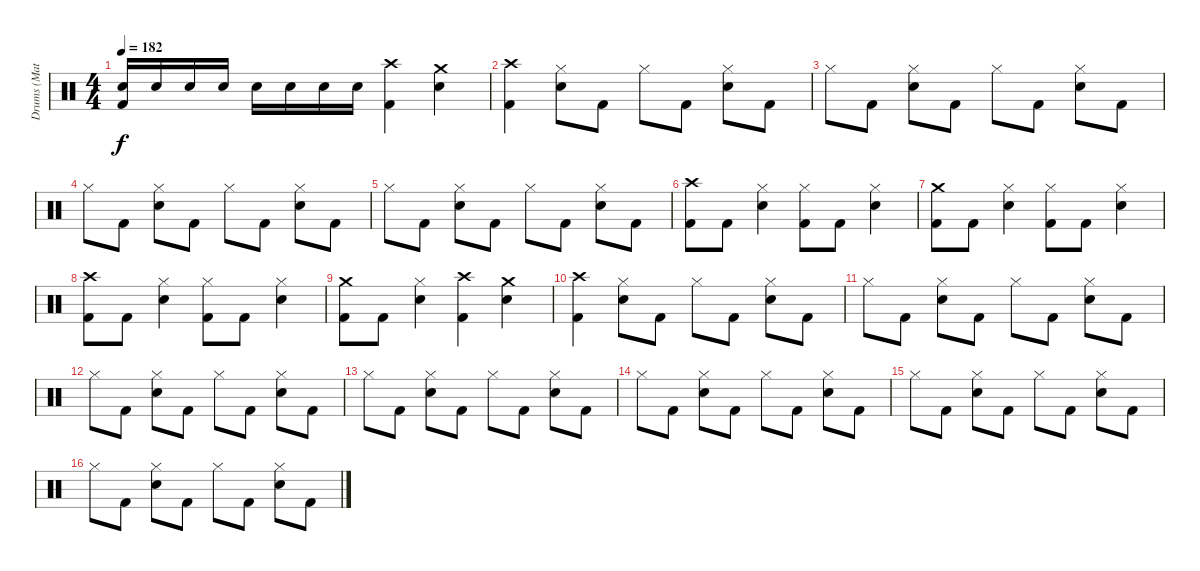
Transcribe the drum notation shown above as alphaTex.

\track ("Drums (Matt)" "Drums (Mat") {instrument percussion}
\staff {score}
\articulation defaults
\ts (4 4)
\tempo 182
\clef neutral
\ks c
("Snare (hit) 2" "Kick (hit) 2").16{dy f} "Snare (hit) 2".16 "Snare (hit) 2".16 "Snare (hit) 2".16 "Snare (hit) 2".16 "Snare (hit) 2".16 "Snare (hit) 2".16 "Snare (hit) 2".16 ("Crash high (hit)" "Kick (hit) 2").4 ("Crash medium (hit)" "Snare (hit) 2").4 |
("Crash high (hit)" "Kick (hit) 2").4 ("Hi-Hat (closed)" "Snare (hit) 2").8 "Kick (hit) 2".8 "Hi-Hat (closed)".8 "Kick (hit) 2".8 ("Hi-Hat (closed)" "Snare (hit) 2").8 "Kick (hit) 2".8 |
"Hi-Hat (closed)".8 "Kick (hit) 2".8 ("Hi-Hat (closed)" "Snare (hit) 2").8 "Kick (hit) 2".8 "Hi-Hat (closed)".8 "Kick (hit) 2".8 ("Hi-Hat (closed)" "Snare (hit) 2").8 "Kick (hit) 2".8 |
"Hi-Hat (closed)".8 "Kick (hit) 2".8 ("Hi-Hat (closed)" "Snare (hit) 2").8 "Kick (hit) 2".8 "Hi-Hat (closed)".8 "Kick (hit) 2".8 ("Hi-Hat (closed)" "Snare (hit) 2").8 "Kick (hit) 2".8 |
"Hi-Hat (closed)".8 "Kick (hit) 2".8 ("Hi-Hat (closed)" "Snare (hit) 2").8 "Kick (hit) 2".8 "Hi-Hat (closed)".8 "Kick (hit) 2".8 ("Hi-Hat (closed)" "Snare (hit) 2").8 "Kick (hit) 2".8 |
("Crash high (hit)" "Kick (hit) 2").8 "Kick (hit) 2".8 ("Hi-Hat (closed)" "Snare (hit) 2").4 ("Hi-Hat (closed)" "Kick (hit) 2").8 "Kick (hit) 2".8 ("Hi-Hat (closed)" "Snare (hit) 2").4 |
("Crash medium (hit)" "Kick (hit) 2").8 "Kick (hit) 2".8 ("Hi-Hat (closed)" "Snare (hit) 2").4 ("Hi-Hat (closed)" "Kick (hit) 2").8 "Kick (hit) 2".8 ("Hi-Hat (closed)" "Snare (hit) 2").4 |
("Crash high (hit)" "Kick (hit) 2").8 "Kick (hit) 2".8 ("Hi-Hat (closed)" "Snare (hit) 2").4 ("Hi-Hat (closed)" "Kick (hit) 2").8 "Kick (hit) 2".8 ("Hi-Hat (closed)" "Snare (hit) 2").4 |
("Crash medium (hit)" "Kick (hit) 2").8 "Kick (hit) 2".8 ("Hi-Hat (closed)" "Snare (hit) 2").4 ("Crash high (hit)" "Kick (hit) 2").4 ("Crash medium (hit)" "Snare (hit) 2").4 |
("Crash high (hit)" "Kick (hit) 2").4 ("Hi-Hat (closed)" "Snare (hit) 2").8 "Kick (hit) 2".8 "Hi-Hat (closed)".8 "Kick (hit) 2".8 ("Hi-Hat (closed)" "Snare (hit) 2").8 "Kick (hit) 2".8 |
"Hi-Hat (closed)".8 "Kick (hit) 2".8 ("Hi-Hat (closed)" "Snare (hit) 2").8 "Kick (hit) 2".8 "Hi-Hat (closed)".8 "Kick (hit) 2".8 ("Hi-Hat (closed)" "Snare (hit) 2").8 "Kick (hit) 2".8 |
"Hi-Hat (closed)".8 "Kick (hit) 2".8 ("Hi-Hat (closed)" "Snare (hit) 2").8 "Kick (hit) 2".8 "Hi-Hat (closed)".8 "Kick (hit) 2".8 ("Hi-Hat (closed)" "Snare (hit) 2").8 "Kick (hit) 2".8 |
"Hi-Hat (closed)".8 "Kick (hit) 2".8 ("Hi-Hat (closed)" "Snare (hit) 2").8 "Kick (hit) 2".8 "Hi-Hat (closed)".8 "Kick (hit) 2".8 ("Hi-Hat (closed)" "Snare (hit) 2").8 "Kick (hit) 2".8 |
"Hi-Hat (closed)".8 "Kick (hit) 2".8 ("Hi-Hat (closed)" "Snare (hit) 2").8 "Kick (hit) 2".8 "Hi-Hat (closed)".8 "Kick (hit) 2".8 ("Hi-Hat (closed)" "Snare (hit) 2").8 "Kick (hit) 2".8 |
"Hi-Hat (closed)".8 "Kick (hit) 2".8 ("Hi-Hat (closed)" "Snare (hit) 2").8 "Kick (hit) 2".8 "Hi-Hat (closed)".8 "Kick (hit) 2".8 ("Hi-Hat (closed)" "Snare (hit) 2").8 "Kick (hit) 2".8 |
"Hi-Hat (closed)".8 "Kick (hit) 2".8 ("Hi-Hat (closed)" "Snare (hit) 2").8 "Kick (hit) 2".8 "Hi-Hat (closed)".8 "Kick (hit) 2".8 ("Hi-Hat (closed)" "Snare (hit) 2").8 "Kick (hit) 2".8
